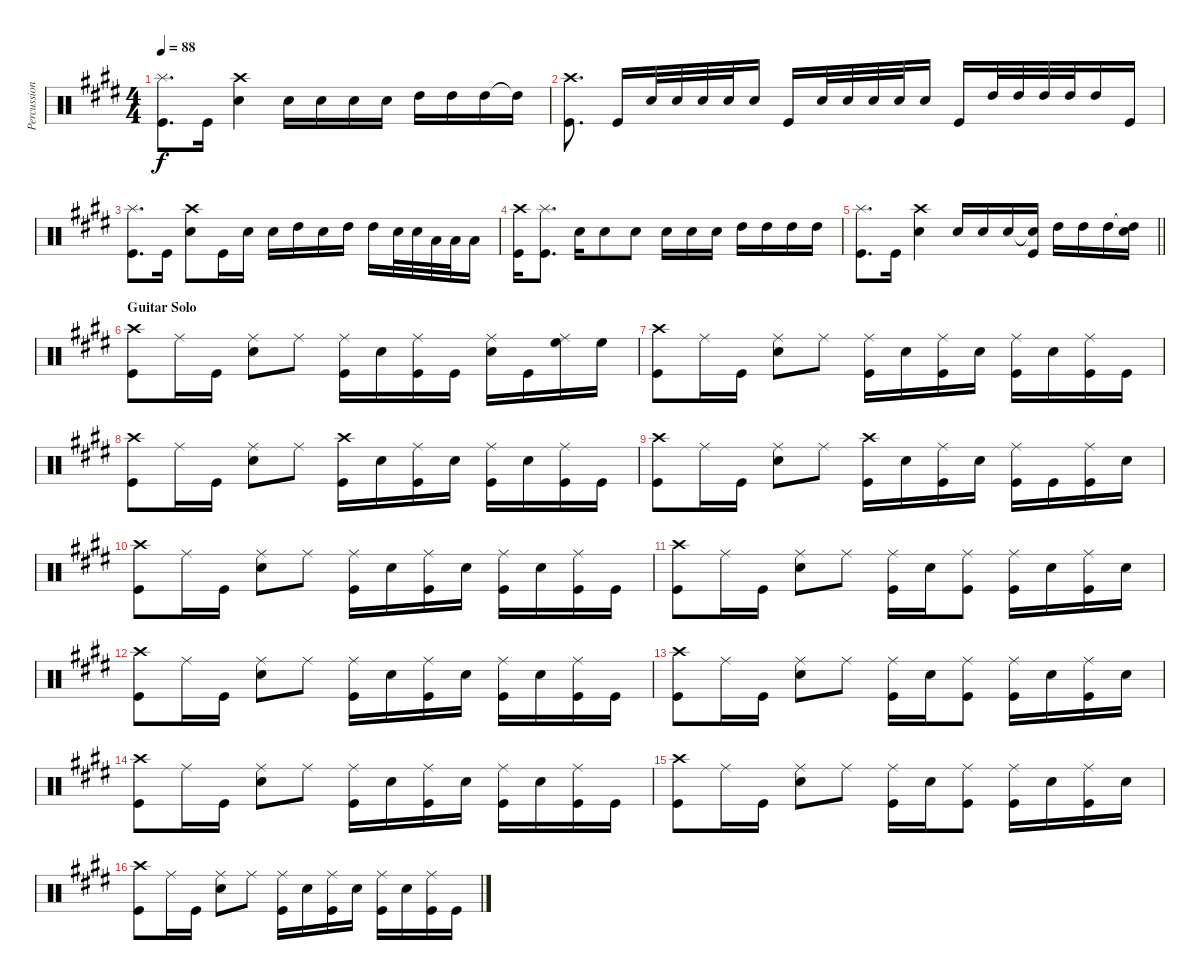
\track ("Percussion" "Percussion") {instrument percussion}
\staff {score}
\articulation defaults
\ts (4 4)
\tempo 88
\clef neutral
\ks e
("Splash (hit)" "Kick (hit)").8{d dy f} "Kick (hit)".16 ("Crash high (hit)" "Snare (hit) 2").4 "Snare (hit) 2".16 "Snare (hit) 2".16 "Snare (hit) 2".16 "Snare (hit) 2".16 "High Tom (hit)".16 "High Tom (hit)".16 "High Tom (hit)".16 "High Tom (hit)"{t}.16 |
("Crash high (hit)" "Kick (hit)").8{d beam split} "Kick (hit)".16{beam merge} "Snare (hit) 2".32 "Snare (hit) 2".32 "Snare (hit) 2".32 "Snare (hit) 2".32 "Snare (hit) 2".16{beam split} "Kick (hit)".16{beam merge} "Snare (hit) 2".32 "Snare (hit) 2".32{beam merge} "Snare (hit) 2".32 "Snare (hit) 2".32 "Snare (hit) 2".16{beam split} "Kick (hit)".16{beam merge} "High Tom (hit)".32{beam merge} "High Tom (hit)".32{beam merge} "High Tom (hit)".32{beam merge} "High Tom (hit)".32 "High Tom (hit)".16 "Kick (hit)".16 |
("Splash (hit)" "Kick (hit)").8{d} "Kick (hit)".16 ("Crash high (hit)" "Snare (hit) 2").8 "Kick (hit)".16 "Snare (hit) 2".16 "Snare (hit) 2".16 "High Tom (hit)".16 "Snare (hit) 2".16 "High Tom (hit)".16 "High Tom (hit)".16 "Snare (hit) 2".32 "Snare (hit) 2".32 "Low Tom (hit)".32 "Low Tom (hit)".32 "Low Tom (hit)".16 |
("Crash high (hit)" "Kick (hit)").16 ("Splash (hit)" "Kick (hit)").8{d} "Snare (hit) 2".16 "Snare (hit) 2".8 "Snare (hit) 2".8 "Snare (hit) 2".16 "Snare (hit) 2".16 "Snare (hit) 2".16 "High Tom (hit)".16 "High Tom (hit)".16 "High Tom (hit)".16 "High Tom (hit)".16 |
\barLineRight lightlight
("Splash (hit)" "Kick (hit)").8{d} "Kick (hit)".16 ("Crash high (hit)" "Snare (hit) 2").4 "Snare (hit) 2".16 "Snare (hit) 2".16 "Snare (hit) 2".16 ("Snare (hit) 2"{t} "Kick (hit)").16 "High Tom (hit)".16 "High Tom (hit)".16 "High Tom (hit)".16 ("High Tom (hit)"{t} "Snare (hit) 2").16 |
\section ("" "Guitar Solo")
("Crash high (hit)" "Kick (hit)").8 "Ride (middle)".16 "Kick (hit)".16 ("Ride (middle)" "Snare (hit) 2").8 "Ride (middle)".8 ("Ride (middle)" "Kick (hit)").16 "Snare (hit) 2".16 ("Ride (middle)" "Kick (hit)").16 "Kick (hit)".16 ("Ride (middle)" "Snare (hit) 2").16 "Kick (hit)".16 ("Ride (middle)" "High Floor Tom (hit)").16 "High Floor Tom (hit)".16 |
("Crash high (hit)" "Kick (hit)").8 "Ride (middle)".16 "Kick (hit)".16 ("Ride (middle)" "Snare (hit) 2").8 "Ride (middle)".8 ("Ride (middle)" "Kick (hit)").16 "Snare (hit) 2".16 ("Ride (middle)" "Kick (hit)").16 "Snare (hit) 2".16 ("Ride (middle)" "Kick (hit)").16 "Snare (hit) 2".16 ("Ride (middle)" "Kick (hit)").16 "Kick (hit)".16 |
("Crash high (hit)" "Kick (hit)").8 "Ride (middle)".16 "Kick (hit)".16 ("Ride (middle)" "Snare (hit) 2").8 "Ride (middle)".8 ("Crash high (hit)" "Kick (hit)").16 "Snare (hit) 2".16 ("Ride (middle)" "Kick (hit)").16 "Snare (hit) 2".16 ("Ride (middle)" "Kick (hit)").16 "Snare (hit) 2".16 ("Ride (middle)" "Kick (hit)").16 "Kick (hit)".16 |
("Crash high (hit)" "Kick (hit)").8 "Ride (middle)".16 "Kick (hit)".16 ("Ride (middle)" "Snare (hit) 2").8 "Ride (middle)".8 ("Crash high (hit)" "Kick (hit)").16 "Snare (hit) 2".16 ("Ride (middle)" "Kick (hit)").16 "Snare (hit) 2".16 ("Ride (middle)" "Kick (hit)").16 "Kick (hit)".16 ("Ride (middle)" "Kick (hit)").16 "Snare (hit) 2".16 |
("Crash high (hit)" "Kick (hit)").8 "Ride (middle)".16 "Kick (hit)".16 ("Ride (middle)" "Snare (hit) 2").8 "Ride (middle)".8 ("Ride (middle)" "Kick (hit)").16 "Snare (hit) 2".16 ("Ride (middle)" "Kick (hit)").16 "Snare (hit) 2".16 ("Ride (middle)" "Kick (hit)").16 "Snare (hit) 2".16 ("Ride (middle)" "Kick (hit)").16 "Kick (hit)".16 |
("Crash high (hit)" "Kick (hit)").8 "Ride (middle)".16 "Kick (hit)".16 ("Ride (middle)" "Snare (hit) 2").8 "Ride (middle)".8 ("Ride (middle)" "Kick (hit)").16 "Snare (hit) 2".16 ("Ride (middle)" "Kick (hit)").8 ("Ride (middle)" "Kick (hit)").16 "Snare (hit) 2".16 ("Ride (middle)" "Kick (hit)").16 "Snare (hit) 2".16 |
("Crash high (hit)" "Kick (hit)").8 "Ride (middle)".16 "Kick (hit)".16 ("Ride (middle)" "Snare (hit) 2").8 "Ride (middle)".8 ("Ride (middle)" "Kick (hit)").16 "Snare (hit) 2".16 ("Ride (middle)" "Kick (hit)").16 "Snare (hit) 2".16 ("Ride (middle)" "Kick (hit)").16 "Snare (hit) 2".16 ("Ride (middle)" "Kick (hit)").16 "Kick (hit)".16 |
("Crash high (hit)" "Kick (hit)").8 "Ride (middle)".16 "Kick (hit)".16 ("Ride (middle)" "Snare (hit) 2").8 "Ride (middle)".8 ("Ride (middle)" "Kick (hit)").16 "Snare (hit) 2".16 ("Ride (middle)" "Kick (hit)").8 ("Ride (middle)" "Kick (hit)").16 "Snare (hit) 2".16 ("Ride (middle)" "Kick (hit)").16 "Snare (hit) 2".16 |
("Crash high (hit)" "Kick (hit)").8 "Ride (middle)".16 "Kick (hit)".16 ("Ride (middle)" "Snare (hit) 2").8 "Ride (middle)".8 ("Ride (middle)" "Kick (hit)").16 "Snare (hit) 2".16 ("Ride (middle)" "Kick (hit)").16 "Snare (hit) 2".16 ("Ride (middle)" "Kick (hit)").16 "Snare (hit) 2".16 ("Ride (middle)" "Kick (hit)").16 "Kick (hit)".16 |
("Crash high (hit)" "Kick (hit)").8 "Ride (middle)".16 "Kick (hit)".16 ("Ride (middle)" "Snare (hit) 2").8 "Ride (middle)".8 ("Ride (middle)" "Kick (hit)").16 "Snare (hit) 2".16 ("Ride (middle)" "Kick (hit)").8 ("Ride (middle)" "Kick (hit)").16 "Snare (hit) 2".16 ("Ride (middle)" "Kick (hit)").16 "Snare (hit) 2".16 |
("Crash high (hit)" "Kick (hit)").8 "Ride (middle)".16 "Kick (hit)".16 ("Ride (middle)" "Snare (hit) 2").8 "Ride (middle)".8 ("Ride (middle)" "Kick (hit)").16 "Snare (hit) 2".16 ("Ride (middle)" "Kick (hit)").16 "Snare (hit) 2".16 ("Ride (middle)" "Kick (hit)").16 "Snare (hit) 2".16 ("Ride (middle)" "Kick (hit)").16 "Kick (hit)".16
